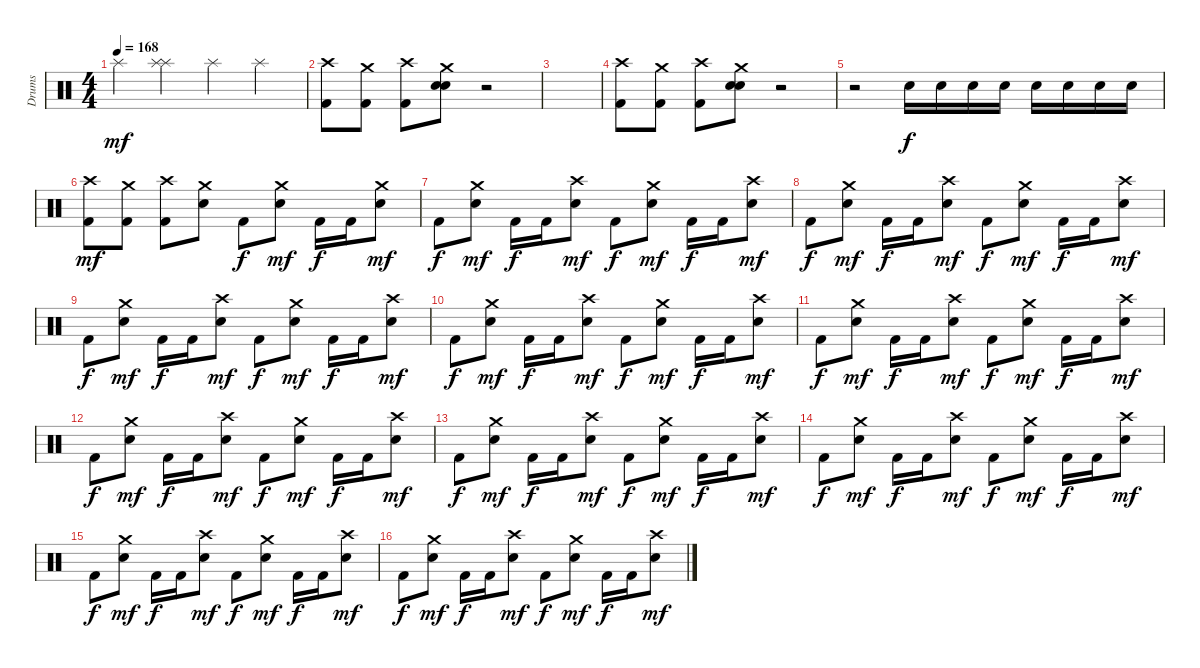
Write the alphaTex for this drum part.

\track ("Drums" "Drums") {instrument percussion}
\staff {score}
\articulation defaults
\ts (4 4)
\tempo 168
\clef neutral
\ks c "Splash (hit)".4{dy mf}
("Splash (hit)" "Splash (hit)").4 "Splash (hit)".4 "Splash (hit)".4 |
("Crash high (hit)" "Kick (hit) 2").8 ("Crash medium (hit)" "Kick (hit) 2").8 ("Crash high (hit)" "Kick (hit) 2").8 ("Crash medium (hit)" "Snare (hit) 2" "Snare (hit) 2").8 r.2 |
|
("Crash high (hit)" "Kick (hit) 2").8 ("Crash medium (hit)" "Kick (hit) 2").8 ("Crash high (hit)" "Kick (hit) 2").8 ("Crash medium (hit)" "Snare (hit) 2" "Snare (hit) 2").8 r.2 |
r.2 "Electric Snare (hit)".16{dy f} "Electric Snare (hit)".16 "Electric Snare (hit)".16 "Electric Snare (hit)".16 "Electric Snare (hit)".16 "Electric Snare (hit)".16 "Electric Snare (hit)".16 "Electric Snare (hit)".16 |
("Crash high (hit)" "Kick (hit) 2").8{dy mf} ("Crash medium (hit)" "Kick (hit) 2").8 ("Crash high (hit)" "Kick (hit) 2").8 ("Crash medium (hit)" "Snare (hit) 2").8 "Kick (hit) 2".8{dy f} ("Crash medium (hit)" "Snare (hit) 2").8{dy mf} "Kick (hit) 2".16{dy f} "Kick (hit) 2".16 ("Crash medium (hit)" "Snare (hit) 2").8{dy mf} |
"Kick (hit) 2".8{dy f} ("Crash medium (hit)" "Snare (hit) 2").8{dy mf} "Kick (hit) 2".16{dy f} "Kick (hit) 2".16 ("Crash high (hit)" "Snare (hit) 2").8{dy mf} "Kick (hit) 2".8{dy f} ("Crash medium (hit)" "Snare (hit) 2").8{dy mf} "Kick (hit) 2".16{dy f} "Kick (hit) 2".16 ("Crash high (hit)" "Snare (hit) 2").8{dy mf} |
"Kick (hit) 2".8{dy f} ("Crash medium (hit)" "Snare (hit) 2").8{dy mf} "Kick (hit) 2".16{dy f} "Kick (hit) 2".16 ("Crash high (hit)" "Snare (hit) 2").8{dy mf} "Kick (hit) 2".8{dy f} ("Crash medium (hit)" "Snare (hit) 2").8{dy mf} "Kick (hit) 2".16{dy f} "Kick (hit) 2".16 ("Crash high (hit)" "Snare (hit) 2").8{dy mf} |
"Kick (hit) 2".8{dy f} ("Crash medium (hit)" "Snare (hit) 2").8{dy mf} "Kick (hit) 2".16{dy f} "Kick (hit) 2".16 ("Crash high (hit)" "Snare (hit) 2").8{dy mf} "Kick (hit) 2".8{dy f} ("Crash medium (hit)" "Snare (hit) 2").8{dy mf} "Kick (hit) 2".16{dy f} "Kick (hit) 2".16 ("Crash high (hit)" "Snare (hit) 2").8{dy mf} |
"Kick (hit) 2".8{dy f} ("Crash medium (hit)" "Snare (hit) 2").8{dy mf} "Kick (hit) 2".16{dy f} "Kick (hit) 2".16 ("Crash high (hit)" "Snare (hit) 2").8{dy mf} "Kick (hit) 2".8{dy f} ("Crash medium (hit)" "Snare (hit) 2").8{dy mf} "Kick (hit) 2".16{dy f} "Kick (hit) 2".16 ("Crash high (hit)" "Snare (hit) 2").8{dy mf} |
"Kick (hit) 2".8{dy f} ("Crash medium (hit)" "Snare (hit) 2").8{dy mf} "Kick (hit) 2".16{dy f} "Kick (hit) 2".16 ("Crash high (hit)" "Snare (hit) 2").8{dy mf} "Kick (hit) 2".8{dy f} ("Crash medium (hit)" "Snare (hit) 2").8{dy mf} "Kick (hit) 2".16{dy f} "Kick (hit) 2".16 ("Crash high (hit)" "Snare (hit) 2").8{dy mf} |
"Kick (hit) 2".8{dy f} ("Crash medium (hit)" "Snare (hit) 2").8{dy mf} "Kick (hit) 2".16{dy f} "Kick (hit) 2".16 ("Crash high (hit)" "Snare (hit) 2").8{dy mf} "Kick (hit) 2".8{dy f} ("Crash medium (hit)" "Snare (hit) 2").8{dy mf} "Kick (hit) 2".16{dy f} "Kick (hit) 2".16 ("Crash high (hit)" "Snare (hit) 2").8{dy mf} |
"Kick (hit) 2".8{dy f} ("Crash medium (hit)" "Snare (hit) 2").8{dy mf} "Kick (hit) 2".16{dy f} "Kick (hit) 2".16 ("Crash high (hit)" "Snare (hit) 2").8{dy mf} "Kick (hit) 2".8{dy f} ("Crash medium (hit)" "Snare (hit) 2").8{dy mf} "Kick (hit) 2".16{dy f} "Kick (hit) 2".16 ("Crash high (hit)" "Snare (hit) 2").8{dy mf} |
"Kick (hit) 2".8{dy f} ("Crash medium (hit)" "Snare (hit) 2").8{dy mf} "Kick (hit) 2".16{dy f} "Kick (hit) 2".16 ("Crash high (hit)" "Snare (hit) 2").8{dy mf} "Kick (hit) 2".8{dy f} ("Crash medium (hit)" "Snare (hit) 2").8{dy mf} "Kick (hit) 2".16{dy f} "Kick (hit) 2".16 ("Crash high (hit)" "Snare (hit) 2").8{dy mf} |
"Kick (hit) 2".8{dy f} ("Crash medium (hit)" "Snare (hit) 2").8{dy mf} "Kick (hit) 2".16{dy f} "Kick (hit) 2".16 ("Crash high (hit)" "Snare (hit) 2").8{dy mf} "Kick (hit) 2".8{dy f} ("Crash medium (hit)" "Snare (hit) 2").8{dy mf} "Kick (hit) 2".16{dy f} "Kick (hit) 2".16 ("Crash high (hit)" "Snare (hit) 2").8{dy mf} |
"Kick (hit) 2".8{dy f} ("Crash medium (hit)" "Snare (hit) 2").8{dy mf} "Kick (hit) 2".16{dy f} "Kick (hit) 2".16 ("Crash high (hit)" "Snare (hit) 2").8{dy mf} "Kick (hit) 2".8{dy f} ("Crash medium (hit)" "Snare (hit) 2").8{dy mf} "Kick (hit) 2".16{dy f} "Kick (hit) 2".16 ("Crash high (hit)" "Snare (hit) 2").8{dy mf}
